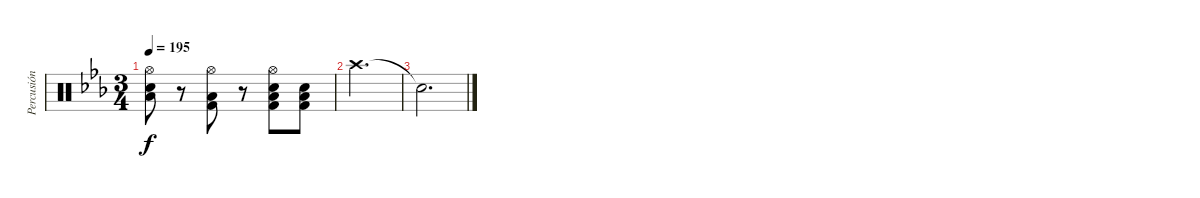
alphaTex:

\track ("Percusión" "Percusión") {instrument percussion}
\staff {score}
\articulation defaults
\ts (3 4)
\tempo 195
\clef neutral
\ks eb
("Hi-Hat (open)" "Low Floor Tom (hit)" "Snare (hit) 2").8{dy f} r.8 ("Hi-Hat (open)" "Low Floor Tom (hit)" "Kick (hit) 2").8 r.8 ("Hi-Hat (open)" "Low Floor Tom (hit)" "Snare (hit) 2" "Kick (hit) 2").8 ("Low Floor Tom (hit)" "Snare (hit) 2" "Kick (hit) 2").8 |
"Crash high (hit)".2{d} |
"Snare (hit)"{t}.2{d}
